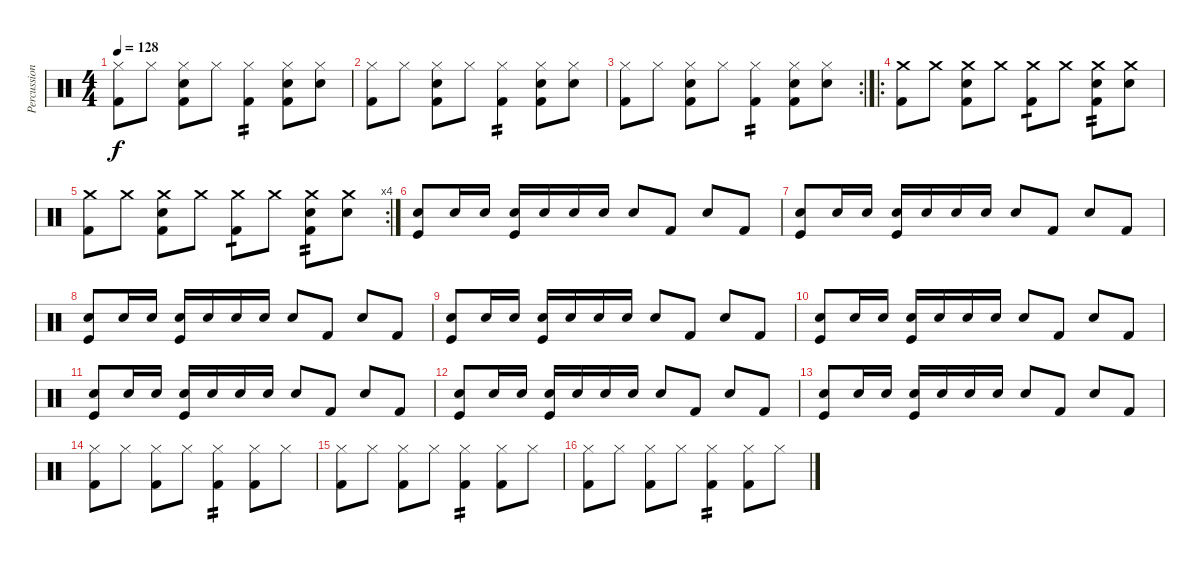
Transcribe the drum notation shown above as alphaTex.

\track ("Percussion" "Percussion") {instrument percussion}
\staff {score}
\articulation defaults
\ts (4 4)
\tempo 128
\clef neutral
\ks c
("Hi-Hat (closed)" "Kick (hit) 2").8{dy f} "Hi-Hat (closed)".8 ("Hi-Hat (closed)" "Snare (hit) 2" "Kick (hit) 2").8 "Hi-Hat (closed)".8 ("Hi-Hat (closed)" "Kick (hit) 2").4{tp 2} ("Hi-Hat (closed)" "Snare (hit) 2"{tr (38 16)} "Kick (hit) 2").8 ("Hi-Hat (closed)" "Snare (hit) 2").8 |
("Hi-Hat (closed)" "Kick (hit) 2").8 "Hi-Hat (closed)".8 ("Hi-Hat (closed)" "Snare (hit) 2" "Kick (hit) 2").8 "Hi-Hat (closed)".8 ("Hi-Hat (closed)" "Kick (hit) 2").4{tp 2} ("Hi-Hat (closed)" "Snare (hit) 2"{tr (38 16)} "Kick (hit) 2").8 ("Hi-Hat (closed)" "Snare (hit) 2").8 |
\rc 2
("Hi-Hat (closed)" "Kick (hit) 2").8 "Hi-Hat (closed)".8 ("Hi-Hat (closed)" "Snare (hit) 2" "Kick (hit) 2").8 "Hi-Hat (closed)".8 ("Hi-Hat (closed)" "Kick (hit) 2").4{tp 2} ("Hi-Hat (closed)" "Snare (hit) 2"{tr (38 16)} "Kick (hit) 2").8 ("Hi-Hat (closed)" "Snare (hit) 2").8 |
\ro
("Crash medium (hit)" "Kick (hit) 2").8 "Crash medium (hit)".8 ("Crash medium (hit)" "Snare (hit) 2" "Kick (hit) 2").8 "Crash medium (hit)".8 ("Crash medium (hit)" "Kick (hit) 2").8{tp 1} "Crash medium (hit)".8 ("Crash medium (hit)" "Snare (hit) 2" "Kick (hit) 2").8{tp 2} ("Crash medium (hit)" "Snare (hit) 2").8 |
\rc 4
("Crash medium (hit)" "Kick (hit) 2").8 "Crash medium (hit)".8 ("Crash medium (hit)" "Snare (hit) 2" "Kick (hit) 2").8 "Crash medium (hit)".8 ("Crash medium (hit)" "Kick (hit) 2").8{tp 1} "Crash medium (hit)".8 ("Crash medium (hit)" "Snare (hit) 2" "Kick (hit) 2").8{tp 2} ("Crash medium (hit)" "Snare (hit) 2").8 |
("Snare (hit) 2" "Kick (hit)").8 "Snare (hit) 2".16 "Snare (hit) 2".16 ("Snare (hit) 2" "Kick (hit)").16 "Snare (hit) 2".16 "Snare (hit) 2".16 "Snare (hit) 2".16 "Snare (hit) 2".8 "Kick (hit) 2".8 "Snare (hit) 2".8 "Kick (hit) 2".8 |
("Snare (hit) 2" "Kick (hit)").8 "Snare (hit) 2".16 "Snare (hit) 2".16 ("Snare (hit) 2" "Kick (hit)").16 "Snare (hit) 2".16 "Snare (hit) 2".16 "Snare (hit) 2".16 "Snare (hit) 2".8 "Kick (hit) 2".8 "Snare (hit) 2".8 "Kick (hit) 2".8 |
("Snare (hit) 2" "Kick (hit)").8 "Snare (hit) 2".16 "Snare (hit) 2".16 ("Snare (hit) 2" "Kick (hit)").16 "Snare (hit) 2".16 "Snare (hit) 2".16 "Snare (hit) 2".16 "Snare (hit) 2".8 "Kick (hit) 2".8 "Snare (hit) 2".8 "Kick (hit) 2".8 |
("Snare (hit) 2" "Kick (hit)").8 "Snare (hit) 2".16 "Snare (hit) 2".16 ("Snare (hit) 2" "Kick (hit)").16 "Snare (hit) 2".16 "Snare (hit) 2".16 "Snare (hit) 2".16 "Snare (hit) 2".8 "Kick (hit) 2".8 "Snare (hit) 2".8 "Kick (hit) 2".8 |
("Snare (hit) 2" "Kick (hit)").8 "Snare (hit) 2".16 "Snare (hit) 2".16 ("Snare (hit) 2" "Kick (hit)").16 "Snare (hit) 2".16 "Snare (hit) 2".16 "Snare (hit) 2".16 "Snare (hit) 2".8 "Kick (hit) 2".8 "Snare (hit) 2".8 "Kick (hit) 2".8 |
("Snare (hit) 2" "Kick (hit)").8 "Snare (hit) 2".16 "Snare (hit) 2".16 ("Snare (hit) 2" "Kick (hit)").16 "Snare (hit) 2".16 "Snare (hit) 2".16 "Snare (hit) 2".16 "Snare (hit) 2".8 "Kick (hit) 2".8 "Snare (hit) 2".8 "Kick (hit) 2".8 |
("Snare (hit) 2" "Kick (hit)").8 "Snare (hit) 2".16 "Snare (hit) 2".16 ("Snare (hit) 2" "Kick (hit)").16 "Snare (hit) 2".16 "Snare (hit) 2".16 "Snare (hit) 2".16 "Snare (hit) 2".8 "Kick (hit) 2".8 "Snare (hit) 2".8 "Kick (hit) 2".8 |
("Snare (hit) 2" "Kick (hit)").8 "Snare (hit) 2".16 "Snare (hit) 2".16 ("Snare (hit) 2" "Kick (hit)").16 "Snare (hit) 2".16 "Snare (hit) 2".16 "Snare (hit) 2".16 "Snare (hit) 2".8 "Kick (hit) 2".8 "Snare (hit) 2".8 "Kick (hit) 2".8 |
("Hi-Hat (closed)" "Kick (hit) 2").8 "Hi-Hat (closed)".8 ("Hi-Hat (closed)" "Kick (hit) 2").8 "Hi-Hat (closed)".8 ("Hi-Hat (closed)" "Kick (hit) 2").4{tp 2} ("Hi-Hat (closed)" "Kick (hit) 2").8 "Hi-Hat (closed)".8 |
("Hi-Hat (closed)" "Kick (hit) 2").8 "Hi-Hat (closed)".8 ("Hi-Hat (closed)" "Kick (hit) 2").8 "Hi-Hat (closed)".8 ("Hi-Hat (closed)" "Kick (hit) 2").4{tp 2} ("Hi-Hat (closed)" "Kick (hit) 2").8 "Hi-Hat (closed)".8 |
("Hi-Hat (closed)" "Kick (hit) 2").8 "Hi-Hat (closed)".8 ("Hi-Hat (closed)" "Kick (hit) 2").8 "Hi-Hat (closed)".8 ("Hi-Hat (closed)" "Kick (hit) 2").4{tp 2} ("Hi-Hat (closed)" "Kick (hit) 2").8 "Hi-Hat (closed)".8
